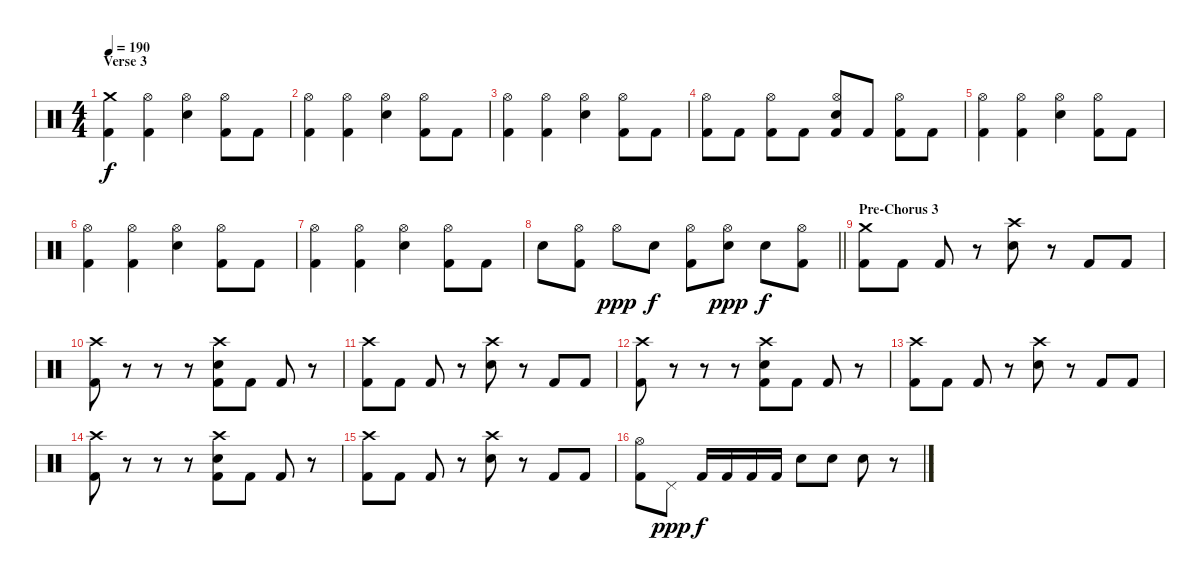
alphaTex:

\track "" {instrument percussion}
\staff {score}
\articulation defaults
\ts (4 4)
\section ("" "Verse 3")
\tempo 190
\clef neutral
\ks c
("Crash medium (hit)" "Kick (hit) 2").4{dy f volume 16} ("Hi-Hat (open)" "Kick (hit) 2").4 ("Hi-Hat (open)" "Electric Snare (hit)").4 ("Hi-Hat (open)" "Kick (hit) 2").8 "Kick (hit) 2".8 |
("Hi-Hat (open)" "Kick (hit) 2").4 ("Hi-Hat (open)" "Kick (hit) 2").4 ("Hi-Hat (open)" "Electric Snare (hit)").4 ("Hi-Hat (open)" "Kick (hit) 2").8 "Kick (hit) 2".8 |
("Hi-Hat (open)" "Kick (hit) 2").4 ("Hi-Hat (open)" "Kick (hit) 2").4 ("Hi-Hat (open)" "Electric Snare (hit)").4 ("Hi-Hat (open)" "Kick (hit) 2").8 "Kick (hit) 2".8 |
("Hi-Hat (open)" "Kick (hit) 2").8 "Kick (hit) 2".8 ("Hi-Hat (open)" "Kick (hit) 2").8 "Kick (hit) 2".8 ("Hi-Hat (open)" "Electric Snare (hit)" "Kick (hit) 2").8 "Kick (hit) 2".8 ("Hi-Hat (open)" "Kick (hit) 2").8 "Kick (hit) 2".8 |
("Hi-Hat (open)" "Kick (hit) 2").4 ("Hi-Hat (open)" "Kick (hit) 2").4 ("Hi-Hat (open)" "Electric Snare (hit)").4 ("Hi-Hat (open)" "Kick (hit) 2").8 "Kick (hit) 2".8 |
("Hi-Hat (open)" "Kick (hit) 2").4 ("Hi-Hat (open)" "Kick (hit) 2").4 ("Hi-Hat (open)" "Electric Snare (hit)").4 ("Hi-Hat (open)" "Kick (hit) 2").8 "Kick (hit) 2".8 |
("Hi-Hat (open)" "Kick (hit) 2").4 ("Hi-Hat (open)" "Kick (hit) 2").4 ("Hi-Hat (open)" "Electric Snare (hit)").4 ("Hi-Hat (open)" "Kick (hit) 2").8 "Kick (hit) 2".8 |
\barLineRight lightlight "Electric Snare (hit)".8
("Hi-Hat (open)" "Kick (hit) 2").8 "Hi-Hat (open)".8{dy ppp volume 0} "Electric Snare (hit)".8{dy f volume 16} ("Hi-Hat (open)" "Kick (hit) 2").8 ("Hi-Hat (open)" "Electric Snare (hit)").8{dy ppp} "Electric Snare (hit)".8{dy f} ("Hi-Hat (open)" "Kick (hit) 2").8 |
\section ("" "Pre-Chorus 3")
("Crash medium (hit)" "Kick (hit) 2").8 "Kick (hit) 2".8 "Kick (hit) 2".8 r.8 ("Crash high (hit)" "Electric Snare (hit)").8 r.8 "Kick (hit) 2".8 "Kick (hit) 2".8 |
("Crash high (hit)" "Kick (hit) 2").8 r.8 r.8 r.8 ("Crash high (hit)" "Electric Snare (hit)" "Kick (hit) 2").8 "Kick (hit) 2".8 "Kick (hit) 2".8 r.8 |
("Crash high (hit)" "Kick (hit) 2").8 "Kick (hit) 2".8 "Kick (hit) 2".8 r.8 ("Crash high (hit)" "Electric Snare (hit)").8 r.8 "Kick (hit) 2".8 "Kick (hit) 2".8 |
("Crash high (hit)" "Kick (hit) 2").8 r.8 r.8 r.8 ("Crash high (hit)" "Electric Snare (hit)" "Kick (hit) 2").8 "Kick (hit) 2".8 "Kick (hit) 2".8 r.8 |
("Crash high (hit)" "Kick (hit) 2").8 "Kick (hit) 2".8 "Kick (hit) 2".8 r.8 ("Crash high (hit)" "Electric Snare (hit)").8 r.8 "Kick (hit) 2".8 "Kick (hit) 2".8 |
("Crash high (hit)" "Kick (hit) 2").8 r.8 r.8 r.8 ("Crash high (hit)" "Electric Snare (hit)" "Kick (hit) 2").8 "Kick (hit) 2".8 "Kick (hit) 2".8 r.8 |
("Crash high (hit)" "Kick (hit) 2").8 "Kick (hit) 2".8 "Kick (hit) 2".8 r.8 ("Crash high (hit)" "Electric Snare (hit)").8 r.8 "Kick (hit) 2".8 "Kick (hit) 2".8 |
("Hi-Hat (open)" "Kick (hit) 2").8 "Pedal Hi-Hat (hit)".8{dy ppp} "Kick (hit) 2".16{dy f} "Kick (hit) 2".16 "Kick (hit) 2".16 "Kick (hit) 2".16 "Electric Snare (hit)".8 "Electric Snare (hit)".8 "Electric Snare (hit)".8 r.8
